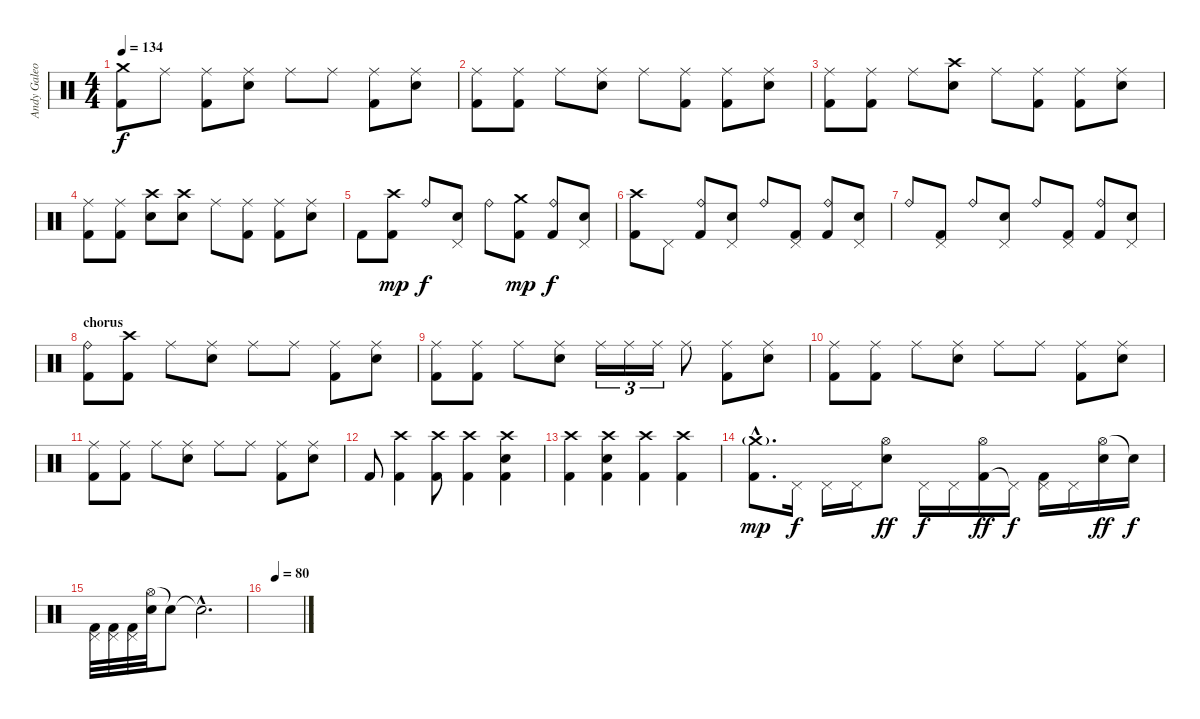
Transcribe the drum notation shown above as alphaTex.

\track ("Andy Galeon" "Andy Galeo") {instrument percussion}
\staff {score}
\articulation defaults
\ts (4 4)
\tempo 134
\clef neutral
\ks c
("Kick (hit) 2" "Crash medium (hit)").8{dy f} "Ride (middle)".8 ("Kick (hit) 2" "Ride (middle)").8 ("Ride (middle)" "Snare (hit) 2").8 "Ride (middle)".8 "Ride (middle)".8 ("Kick (hit) 2" "Ride (middle)").8 ("Ride (middle)" "Snare (hit) 2").8 |
("Kick (hit) 2" "Ride (middle)").8 ("Kick (hit) 2" "Ride (middle)").8 "Ride (middle)".8 ("Ride (middle)" "Snare (hit) 2").8 "Ride (middle)".8 ("Kick (hit) 2" "Ride (middle)").8 ("Kick (hit) 2" "Ride (middle)").8 ("Ride (middle)" "Snare (hit) 2").8 |
("Kick (hit) 2" "Ride (middle)").8 ("Kick (hit) 2" "Ride (middle)").8 "Ride (middle)".8 ("Crash high (hit)" "Snare (hit) 2").8 "Ride (middle)".8 ("Kick (hit) 2" "Ride (middle)").8 ("Kick (hit) 2" "Ride (middle)").8 ("Ride (middle)" "Snare (hit) 2").8 |
("Kick (hit) 2" "Ride (middle)").8 ("Kick (hit) 2" "Ride (middle)").8 ("Crash high (hit)" "Snare (hit) 2").8 ("Crash high (hit)" "Snare (hit) 2").8 "Ride (middle)".8 ("Kick (hit) 2" "Ride (middle)").8 ("Kick (hit) 2" "Ride (middle)").8 ("Ride (middle)" "Snare (hit) 2").8 |
"Kick (hit) 2".8 ("Kick (hit) 2" "Crash high (hit)").8{dy mp} "Ride (bell)".8{dy f} ("Pedal Hi-Hat (hit)" "Snare (hit) 2").8 "Ride (bell)".8 ("Kick (hit) 2" "Crash medium (hit)").8{dy mp} ("Kick (hit) 2" "Ride (bell)").8{dy f} ("Pedal Hi-Hat (hit)" "Snare (hit) 2").8 |
("Kick (hit) 2" "Crash high (hit)").8 "Pedal Hi-Hat (hit)".8 ("Kick (hit) 2" "Ride (bell)").8 ("Pedal Hi-Hat (hit)" "Snare (hit) 2").8 "Ride (bell)".8 ("Kick (hit) 2" "Pedal Hi-Hat (hit)").8 ("Kick (hit) 2" "Ride (bell)").8 ("Pedal Hi-Hat (hit)" "Snare (hit) 2").8 |
"Ride (bell)".8 ("Kick (hit) 2" "Pedal Hi-Hat (hit)").8 "Ride (bell)".8 ("Pedal Hi-Hat (hit)" "Snare (hit) 2").8 "Ride (bell)".8 ("Kick (hit) 2" "Pedal Hi-Hat (hit)").8 ("Kick (hit) 2" "Ride (bell)").8 ("Pedal Hi-Hat (hit)" "Snare (hit) 2").8 |
\section ("" "chorus")
("Kick (hit) 2" "Ride (bell)").8 ("Kick (hit) 2" "Crash high (hit)").8 "Ride (middle)".8 ("Ride (middle)" "Snare (hit) 2").8 "Ride (middle)".8 "Ride (middle)".8 ("Kick (hit) 2" "Ride (middle)").8 ("Ride (middle)" "Snare (hit) 2").8 |
("Kick (hit) 2" "Ride (middle)").8 ("Kick (hit) 2" "Ride (middle)").8 "Ride (middle)".8 ("Ride (middle)" "Snare (hit) 2").8 "Ride (middle)".16{tu (3 2)} "Ride (middle)".16{tu (3 2)} "Ride (middle)".16{tu (3 2)} "Ride (middle)".8 ("Kick (hit) 2" "Ride (middle)").8 ("Ride (middle)" "Snare (hit) 2").8 |
("Kick (hit) 2" "Ride (middle)").8 ("Kick (hit) 2" "Ride (middle)").8 "Ride (middle)".8 ("Ride (middle)" "Snare (hit) 2").8 "Ride (middle)".8 "Ride (middle)".8 ("Kick (hit) 2" "Ride (middle)").8 ("Ride (middle)" "Snare (hit) 2").8 |
("Kick (hit) 2" "Ride (middle)").8 ("Kick (hit) 2" "Ride (middle)").8 "Ride (middle)".8 ("Ride (middle)" "Snare (hit) 2").8 "Ride (middle)".8 "Ride (middle)".8 ("Kick (hit) 2" "Ride (middle)").8 ("Ride (middle)" "Snare (hit) 2").8 |
"Kick (hit) 2".8 ("Kick (hit) 2" "Crash high (hit)").4 ("Kick (hit) 2" "Crash high (hit)").8 ("Kick (hit) 2" "Crash high (hit)").4 ("Kick (hit) 2" "Crash high (hit)" "Snare (hit) 2").4 |
("Kick (hit) 2" "Crash high (hit)").4 ("Kick (hit) 2" "Crash high (hit)" "Snare (hit) 2").4 ("Kick (hit) 2" "Crash high (hit)").4 ("Kick (hit) 2" "Crash high (hit)").4 |
("Kick (hit) 2"{hac} "Crash medium (hit)"{g hac}).8{d dy mp} "Pedal Hi-Hat (hit)".16{dy f} "Pedal Hi-Hat (hit)".16 "Pedal Hi-Hat (hit)".16 ("Hi-Hat (open)" "Snare (hit) 2").8{dy ff} "Pedal Hi-Hat (hit)".16{dy f} "Pedal Hi-Hat (hit)".16 ("Kick (hit) 2" "Hi-Hat (open)").16{dy ff} "Pedal Hi-Hat (hit)"{t}.16{dy f} ("Kick (hit) 2" "Pedal Hi-Hat (hit)").16 "Pedal Hi-Hat (hit)".16 ("Hi-Hat (open)" "Snare (hit) 2").16{dy ff} "Snare (hit)"{t}.16{dy f} |
("Kick (hit) 2" "Pedal Hi-Hat (hit)").32 ("Kick (hit) 2" "Pedal Hi-Hat (hit)").32 ("Kick (hit) 2" "Pedal Hi-Hat (hit)").32 ("Hi-Hat (open)" "Snare (hit) 2").32 "Snare (hit)"{t}.8 "Snare (hit)"{hac t}.2{d} |
\tempo (80 0.25)
